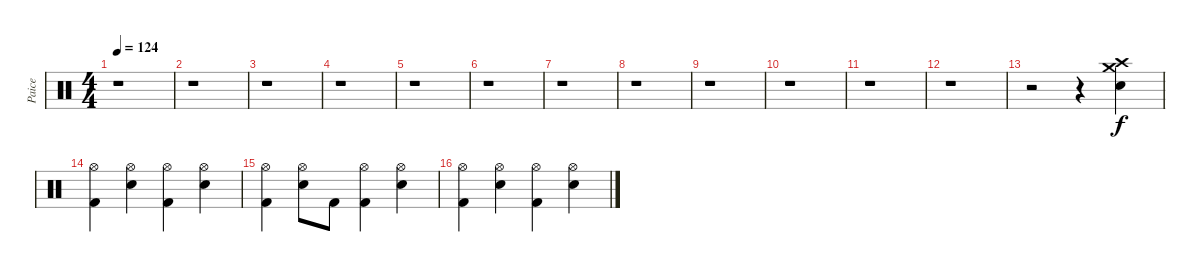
\track ("Paice" "Paice") {instrument percussion}
\staff {score}
\articulation defaults
\ts (4 4)
\tempo 124
\clef neutral
\ks c
r.1{dy f} |
r.1 |
r.1 |
r.1 |
r.1 |
r.1 |
r.1 |
r.1 |
r.1 |
r.1 |
r.1 |
r.1 |
r.2 r.4 ("Crash high (hit)" "Crash medium (hit)" "Electric Snare (hit)").4 |
("Hi-Hat (open)" "Kick (hit) 2").4 ("Hi-Hat (open)" "Electric Snare (hit)").4 ("Hi-Hat (open)" "Kick (hit) 2").4 ("Hi-Hat (open)" "Electric Snare (hit)").4 |
("Hi-Hat (open)" "Kick (hit) 2").4 ("Hi-Hat (open)" "Electric Snare (hit)").8 "Kick (hit) 2".8 ("Hi-Hat (open)" "Kick (hit) 2").4 ("Hi-Hat (open)" "Electric Snare (hit)").4 |
("Hi-Hat (open)" "Kick (hit) 2").4 ("Hi-Hat (open)" "Electric Snare (hit)").4 ("Hi-Hat (open)" "Kick (hit) 2").4 ("Hi-Hat (open)" "Electric Snare (hit)").4
